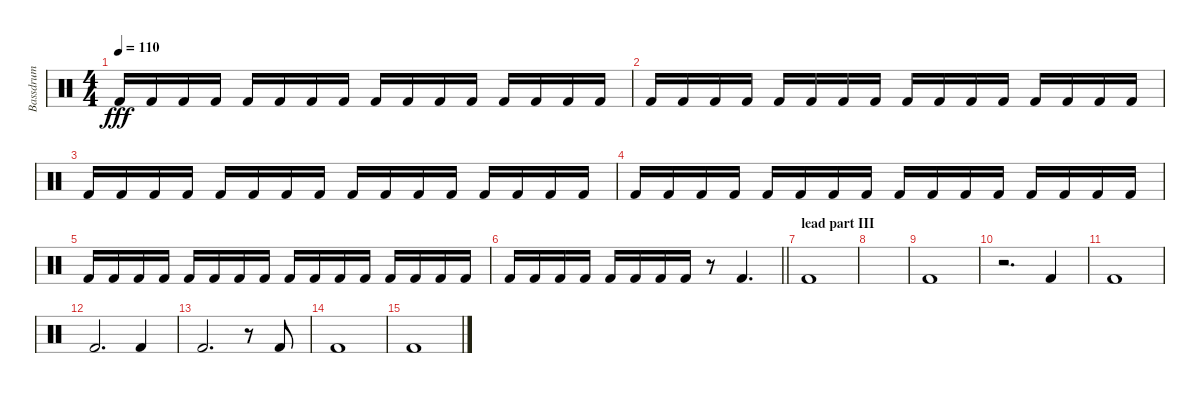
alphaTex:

\track ("Bassdrum" "Bassdrum") {instrument percussion}
\staff {score}
\articulation defaults
\ts (4 4)
\tempo 110
\clef neutral
\ks c "Kick (hit) 2".16{dy fff} "Kick (hit) 2".16 "Kick (hit) 2".16 "Kick (hit) 2".16 "Kick (hit) 2".16 "Kick (hit) 2".16 "Kick (hit) 2".16 "Kick (hit) 2".16 "Kick (hit) 2".16 "Kick (hit) 2".16 "Kick (hit) 2".16 "Kick (hit) 2".16 "Kick (hit) 2".16 "Kick (hit) 2".16 "Kick (hit) 2".16 "Kick (hit) 2".16
|
"Kick (hit) 2".16 "Kick (hit) 2".16 "Kick (hit) 2".16 "Kick (hit) 2".16 "Kick (hit) 2".16 "Kick (hit) 2".16 "Kick (hit) 2".16 "Kick (hit) 2".16 "Kick (hit) 2".16 "Kick (hit) 2".16 "Kick (hit) 2".16 "Kick (hit) 2".16 "Kick (hit) 2".16 "Kick (hit) 2".16 "Kick (hit) 2".16 "Kick (hit) 2".16 |
"Kick (hit) 2".16 "Kick (hit) 2".16 "Kick (hit) 2".16 "Kick (hit) 2".16 "Kick (hit) 2".16 "Kick (hit) 2".16 "Kick (hit) 2".16 "Kick (hit) 2".16 "Kick (hit) 2".16 "Kick (hit) 2".16 "Kick (hit) 2".16 "Kick (hit) 2".16 "Kick (hit) 2".16 "Kick (hit) 2".16 "Kick (hit) 2".16 "Kick (hit) 2".16 |
"Kick (hit) 2".16 "Kick (hit) 2".16 "Kick (hit) 2".16 "Kick (hit) 2".16 "Kick (hit) 2".16 "Kick (hit) 2".16 "Kick (hit) 2".16 "Kick (hit) 2".16 "Kick (hit) 2".16 "Kick (hit) 2".16 "Kick (hit) 2".16 "Kick (hit) 2".16 "Kick (hit) 2".16 "Kick (hit) 2".16 "Kick (hit) 2".16 "Kick (hit) 2".16 |
"Kick (hit) 2".16 "Kick (hit) 2".16 "Kick (hit) 2".16 "Kick (hit) 2".16 "Kick (hit) 2".16 "Kick (hit) 2".16 "Kick (hit) 2".16 "Kick (hit) 2".16 "Kick (hit) 2".16 "Kick (hit) 2".16 "Kick (hit) 2".16 "Kick (hit) 2".16 "Kick (hit) 2".16 "Kick (hit) 2".16 "Kick (hit) 2".16 "Kick (hit) 2".16 |
\barLineRight lightlight "Kick (hit) 2".16 "Kick (hit) 2".16 "Kick (hit) 2".16 "Kick (hit) 2".16 "Kick (hit) 2".16 "Kick (hit) 2".16 "Kick (hit) 2".16 "Kick (hit) 2".16
r.8 "Kick (hit) 2".4{d} |
\section ("" "lead part III")
"Kick (hit) 2".1 |
|
"Kick (hit) 2".1 |
r.2{d} "Kick (hit) 2".4 |
"Kick (hit) 2".1 |
"Kick (hit) 2".2{d} "Kick (hit) 2".4 |
"Kick (hit) 2".2{d} r.8 "Kick (hit) 2".8 |
"Kick (hit) 2".1 |
"Kick (hit) 2".1
